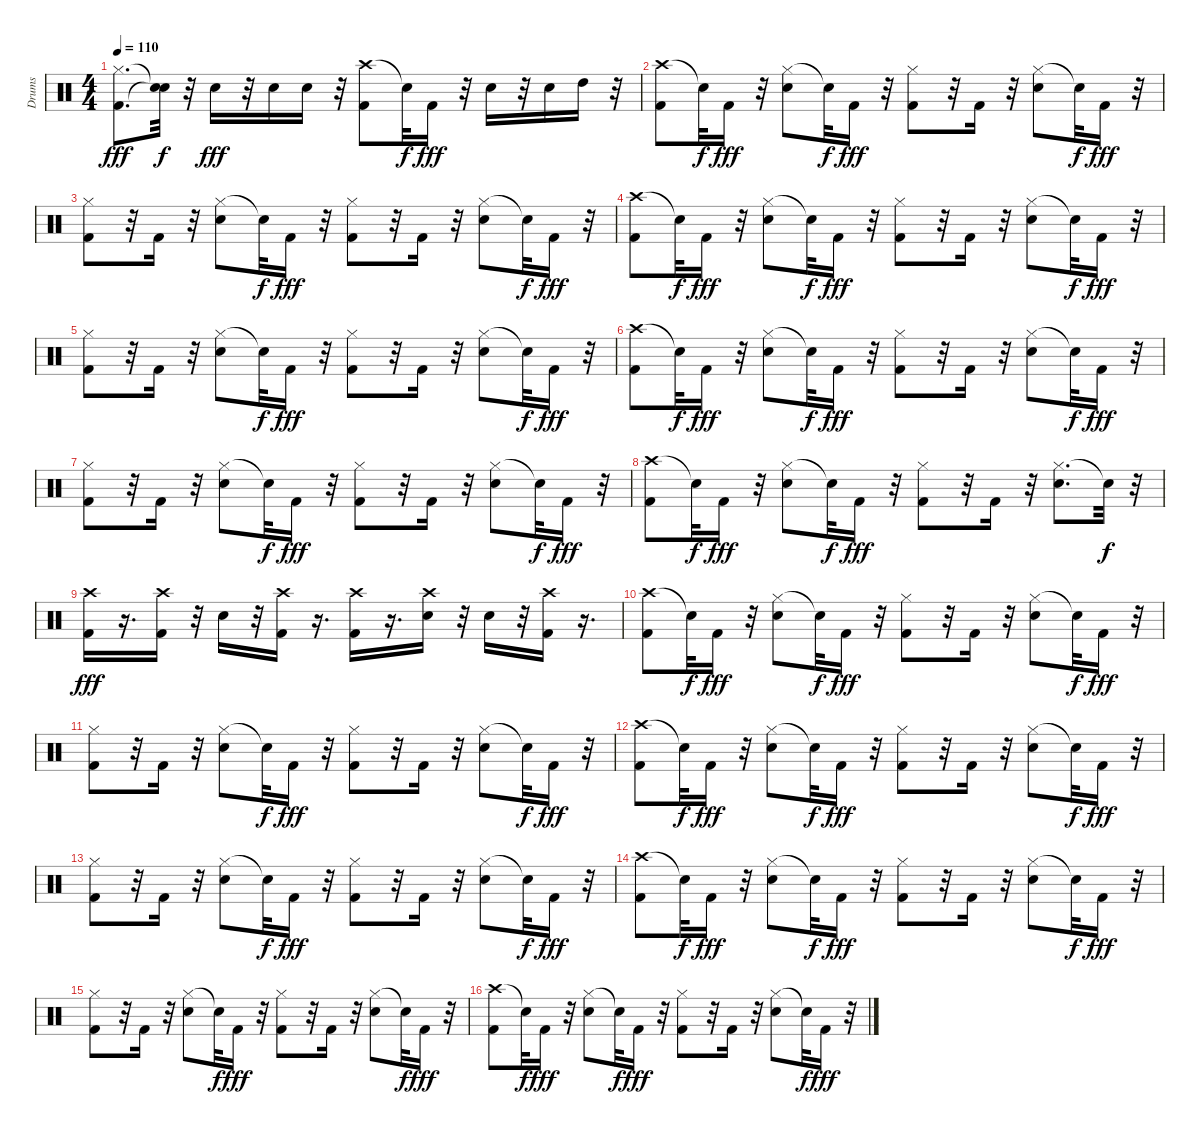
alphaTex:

\track ("Drums" "Drums") {instrument percussion}
\staff {score}
\articulation defaults
\ts (4 4)
\tempo 110
\clef neutral
\ks c
("Hi-Hat (closed)" "Kick (hit) 2").8{d dy fff} ("Snare (hit)"{t} "Snare (hit)"{t}).32{dy f} r.32 "Snare (hit) 2".16{dy fff} r.32 "Snare (hit) 2".16 "Snare (hit) 2".16 r.32 ("Crash high (hit)" "Kick (hit) 2").8 "Snare (hit)"{t}.32{dy f} "Kick (hit) 2".16{dy fff} r.32 "Snare (hit) 2".16 r.32 "Snare (hit) 2".16 "High Tom (hit)".16 r.32 |
("Crash high (hit)" "Kick (hit) 2").8 "Snare (hit)"{t}.32{dy f} "Kick (hit) 2".16{dy fff} r.32 ("Hi-Hat (closed)" "Snare (hit) 2").8 "Snare (hit)"{t}.32{dy f} "Kick (hit) 2".16{dy fff} r.32 ("Kick (hit) 2" "Hi-Hat (closed)").8 r.32 "Kick (hit) 2".16 r.32 ("Hi-Hat (closed)" "Snare (hit) 2").8 "Snare (hit)"{t}.32{dy f} "Kick (hit) 2".16{dy fff} r.32 |
("Kick (hit) 2" "Hi-Hat (closed)").8 r.32 "Kick (hit) 2".16 r.32 ("Hi-Hat (closed)" "Snare (hit) 2").8 "Snare (hit)"{t}.32{dy f} "Kick (hit) 2".16{dy fff} r.32 ("Kick (hit) 2" "Hi-Hat (closed)").8 r.32 "Kick (hit) 2".16 r.32 ("Hi-Hat (closed)" "Snare (hit) 2").8 "Snare (hit)"{t}.32{dy f} "Kick (hit) 2".16{dy fff} r.32 |
("Crash high (hit)" "Kick (hit) 2").8 "Snare (hit)"{t}.32{dy f} "Kick (hit) 2".16{dy fff} r.32 ("Hi-Hat (closed)" "Snare (hit) 2").8 "Snare (hit)"{t}.32{dy f} "Kick (hit) 2".16{dy fff} r.32 ("Kick (hit) 2" "Hi-Hat (closed)").8 r.32 "Kick (hit) 2".16 r.32 ("Hi-Hat (closed)" "Snare (hit) 2").8 "Snare (hit)"{t}.32{dy f} "Kick (hit) 2".16{dy fff} r.32 |
("Kick (hit) 2" "Hi-Hat (closed)").8 r.32 "Kick (hit) 2".16 r.32 ("Hi-Hat (closed)" "Snare (hit) 2").8 "Snare (hit)"{t}.32{dy f} "Kick (hit) 2".16{dy fff} r.32 ("Kick (hit) 2" "Hi-Hat (closed)").8 r.32 "Kick (hit) 2".16 r.32 ("Hi-Hat (closed)" "Snare (hit) 2").8 "Snare (hit)"{t}.32{dy f} "Kick (hit) 2".16{dy fff} r.32 |
("Crash high (hit)" "Kick (hit) 2").8 "Snare (hit)"{t}.32{dy f} "Kick (hit) 2".16{dy fff} r.32 ("Hi-Hat (closed)" "Snare (hit) 2").8 "Snare (hit)"{t}.32{dy f} "Kick (hit) 2".16{dy fff} r.32 ("Kick (hit) 2" "Hi-Hat (closed)").8 r.32 "Kick (hit) 2".16 r.32 ("Hi-Hat (closed)" "Snare (hit) 2").8 "Snare (hit)"{t}.32{dy f} "Kick (hit) 2".16{dy fff} r.32 |
("Kick (hit) 2" "Hi-Hat (closed)").8 r.32 "Kick (hit) 2".16 r.32 ("Hi-Hat (closed)" "Snare (hit) 2").8 "Snare (hit)"{t}.32{dy f} "Kick (hit) 2".16{dy fff} r.32 ("Kick (hit) 2" "Hi-Hat (closed)").8 r.32 "Kick (hit) 2".16 r.32 ("Hi-Hat (closed)" "Snare (hit) 2").8 "Snare (hit)"{t}.32{dy f} "Kick (hit) 2".16{dy fff} r.32 |
("Crash high (hit)" "Kick (hit) 2").8 "Snare (hit)"{t}.32{dy f} "Kick (hit) 2".16{dy fff} r.32 ("Hi-Hat (closed)" "Snare (hit) 2").8 "Snare (hit)"{t}.32{dy f} "Kick (hit) 2".16{dy fff} r.32 ("Kick (hit) 2" "Hi-Hat (closed)").8 r.32 "Kick (hit) 2".16 r.32 ("Hi-Hat (closed)" "Snare (hit) 2").8{d} "Snare (hit)"{t}.32{dy f} r.32 |
("Kick (hit) 2" "Crash high (hit)").16{dy fff} r.16{d} ("Kick (hit) 2" "Crash high (hit)").16 r.32 "Snare (hit) 2".16 r.32 ("Kick (hit) 2" "Crash high (hit)").16 r.16{d} ("Kick (hit) 2" "Crash high (hit)").16 r.16{d} ("Snare (hit)" "Crash high (hit)").16 r.32 "Snare (hit) 2".16 r.32 ("Kick (hit) 2" "Crash high (hit)").16 r.16{d} |
("Crash high (hit)" "Kick (hit) 2").8 "Snare (hit)"{t}.32{dy f} "Kick (hit) 2".16{dy fff} r.32 ("Hi-Hat (closed)" "Snare (hit) 2").8 "Snare (hit)"{t}.32{dy f} "Kick (hit) 2".16{dy fff} r.32 ("Kick (hit) 2" "Hi-Hat (closed)").8 r.32 "Kick (hit) 2".16 r.32 ("Hi-Hat (closed)" "Snare (hit) 2").8 "Snare (hit)"{t}.32{dy f} "Kick (hit) 2".16{dy fff} r.32 |
("Kick (hit) 2" "Hi-Hat (closed)").8 r.32 "Kick (hit) 2".16 r.32 ("Hi-Hat (closed)" "Snare (hit) 2").8 "Snare (hit)"{t}.32{dy f} "Kick (hit) 2".16{dy fff} r.32 ("Kick (hit) 2" "Hi-Hat (closed)").8 r.32 "Kick (hit) 2".16 r.32 ("Hi-Hat (closed)" "Snare (hit) 2").8 "Snare (hit)"{t}.32{dy f} "Kick (hit) 2".16{dy fff} r.32 |
("Crash high (hit)" "Kick (hit) 2").8 "Snare (hit)"{t}.32{dy f} "Kick (hit) 2".16{dy fff} r.32 ("Hi-Hat (closed)" "Snare (hit) 2").8 "Snare (hit)"{t}.32{dy f} "Kick (hit) 2".16{dy fff} r.32 ("Kick (hit) 2" "Hi-Hat (closed)").8 r.32 "Kick (hit) 2".16 r.32 ("Hi-Hat (closed)" "Snare (hit) 2").8 "Snare (hit)"{t}.32{dy f} "Kick (hit) 2".16{dy fff} r.32 |
("Kick (hit) 2" "Hi-Hat (closed)").8 r.32 "Kick (hit) 2".16 r.32 ("Hi-Hat (closed)" "Snare (hit) 2").8 "Snare (hit)"{t}.32{dy f} "Kick (hit) 2".16{dy fff} r.32 ("Kick (hit) 2" "Hi-Hat (closed)").8 r.32 "Kick (hit) 2".16 r.32 ("Hi-Hat (closed)" "Snare (hit) 2").8 "Snare (hit)"{t}.32{dy f} "Kick (hit) 2".16{dy fff} r.32 |
("Crash high (hit)" "Kick (hit) 2").8 "Snare (hit)"{t}.32{dy f} "Kick (hit) 2".16{dy fff} r.32 ("Hi-Hat (closed)" "Snare (hit) 2").8 "Snare (hit)"{t}.32{dy f} "Kick (hit) 2".16{dy fff} r.32 ("Kick (hit) 2" "Hi-Hat (closed)").8 r.32 "Kick (hit) 2".16 r.32 ("Hi-Hat (closed)" "Snare (hit) 2").8 "Snare (hit)"{t}.32{dy f} "Kick (hit) 2".16{dy fff} r.32 |
("Kick (hit) 2" "Hi-Hat (closed)").8 r.32 "Kick (hit) 2".16 r.32 ("Hi-Hat (closed)" "Snare (hit) 2").8 "Snare (hit)"{t}.32{dy f} "Kick (hit) 2".16{dy fff} r.32 ("Kick (hit) 2" "Hi-Hat (closed)").8 r.32 "Kick (hit) 2".16 r.32 ("Hi-Hat (closed)" "Snare (hit) 2").8 "Snare (hit)"{t}.32{dy f} "Kick (hit) 2".16{dy fff} r.32 |
("Crash high (hit)" "Kick (hit) 2").8 "Snare (hit)"{t}.32{dy f} "Kick (hit) 2".16{dy fff} r.32 ("Hi-Hat (closed)" "Snare (hit) 2").8 "Snare (hit)"{t}.32{dy f} "Kick (hit) 2".16{dy fff} r.32 ("Kick (hit) 2" "Hi-Hat (closed)").8 r.32 "Kick (hit) 2".16 r.32 ("Hi-Hat (closed)" "Snare (hit) 2").8 "Snare (hit)"{t}.32{dy f} "Kick (hit) 2".16{dy fff} r.32
